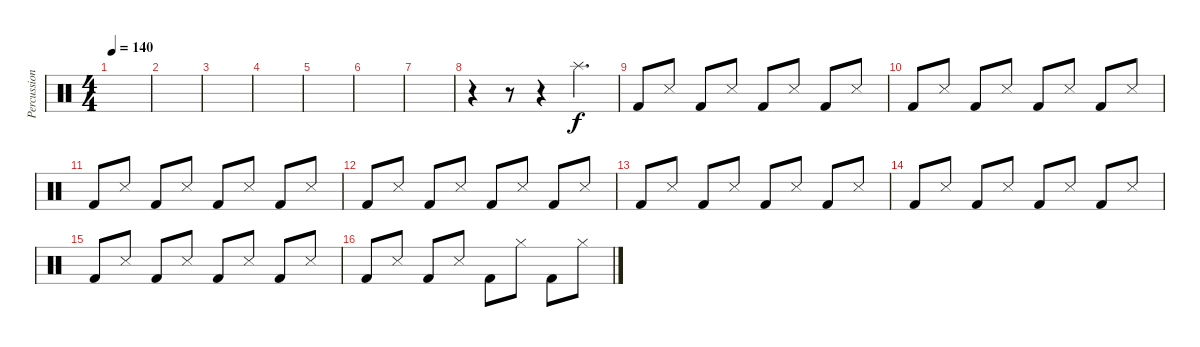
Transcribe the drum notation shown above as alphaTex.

\track ("Percussion" "Percussion") {instrument percussion}
\staff {score}
\articulation defaults
\ts (4 4)
\tempo 140
\clef neutral
\ks c
|
|
|
|
|
|
|
r.4 r.8 r.4 "Splash (hit)".4{d} |
"Kick (hit) 2".8 "Snare (side stick) 3".8 "Kick (hit) 2".8 "Snare (side stick) 3".8 "Kick (hit) 2".8 "Snare (side stick) 3".8 "Kick (hit) 2".8 "Snare (side stick) 3".8 |
"Kick (hit) 2".8 "Snare (side stick) 3".8 "Kick (hit) 2".8 "Snare (side stick) 3".8 "Kick (hit) 2".8 "Snare (side stick) 3".8 "Kick (hit) 2".8 "Snare (side stick) 3".8 |
"Kick (hit) 2".8 "Snare (side stick) 3".8 "Kick (hit) 2".8 "Snare (side stick) 3".8 "Kick (hit) 2".8 "Snare (side stick) 3".8 "Kick (hit) 2".8 "Snare (side stick) 3".8 |
"Kick (hit) 2".8 "Snare (side stick) 3".8 "Kick (hit) 2".8 "Snare (side stick) 3".8 "Kick (hit) 2".8 "Snare (side stick) 3".8 "Kick (hit) 2".8 "Snare (side stick) 3".8 |
"Kick (hit) 2".8 "Snare (side stick) 3".8 "Kick (hit) 2".8 "Snare (side stick) 3".8 "Kick (hit) 2".8 "Snare (side stick) 3".8 "Kick (hit) 2".8 "Snare (side stick) 3".8 |
"Kick (hit) 2".8 "Snare (side stick) 3".8 "Kick (hit) 2".8 "Snare (side stick) 3".8 "Kick (hit) 2".8 "Snare (side stick) 3".8 "Kick (hit) 2".8 "Snare (side stick) 3".8 |
"Kick (hit) 2".8 "Snare (side stick) 3".8 "Kick (hit) 2".8 "Snare (side stick) 3".8 "Kick (hit) 2".8 "Snare (side stick) 3".8 "Kick (hit) 2".8 "Snare (side stick) 3".8 |
"Kick (hit) 2".8 "Snare (side stick) 3".8 "Kick (hit) 2".8 "Snare (side stick) 3".8 "Kick (hit) 2".8 "Hi-Hat (closed)".8 "Kick (hit) 2".8 "Hi-Hat (closed)".8
